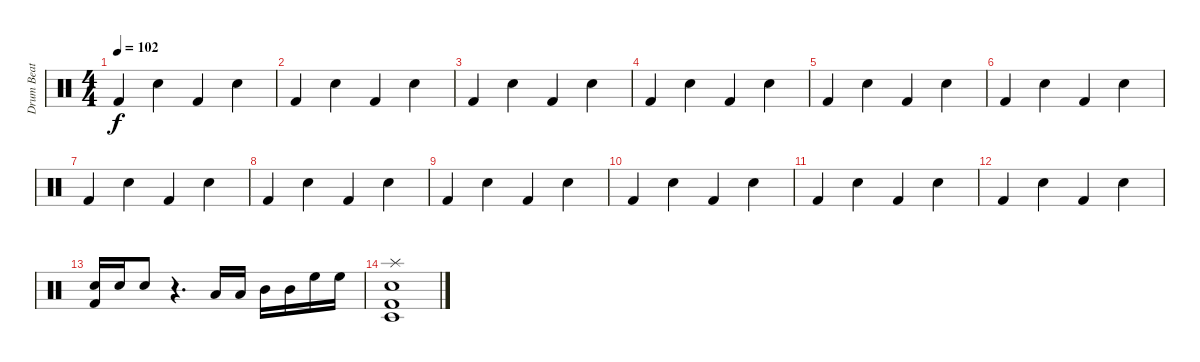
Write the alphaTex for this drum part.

\track ("Drum Beat" "Drum Beat") {instrument percussion}
\staff {score}
\articulation defaults
\ts (4 4)
\tempo 102
\clef neutral
\ks c "Kick (hit) 2".4{dy f} "Electric Snare (hit)".4 "Kick (hit) 2".4 "Electric Snare (hit)".4
|
"Kick (hit) 2".4 "Electric Snare (hit)".4 "Kick (hit) 2".4 "Electric Snare (hit)".4 |
"Kick (hit) 2".4 "Electric Snare (hit)".4 "Kick (hit) 2".4 "Electric Snare (hit)".4 |
"Kick (hit) 2".4 "Electric Snare (hit)".4 "Kick (hit) 2".4 "Electric Snare (hit)".4 |
"Kick (hit) 2".4 "Electric Snare (hit)".4 "Kick (hit) 2".4 "Electric Snare (hit)".4 |
"Kick (hit) 2".4 "Electric Snare (hit)".4 "Kick (hit) 2".4 "Electric Snare (hit)".4 |
"Kick (hit) 2".4 "Electric Snare (hit)".4 "Kick (hit) 2".4 "Electric Snare (hit)".4 |
"Kick (hit) 2".4 "Electric Snare (hit)".4 "Kick (hit) 2".4 "Electric Snare (hit)".4 |
"Kick (hit) 2".4 "Electric Snare (hit)".4 "Kick (hit) 2".4 "Electric Snare (hit)".4 |
"Kick (hit) 2".4 "Electric Snare (hit)".4 "Kick (hit) 2".4 "Electric Snare (hit)".4 |
"Kick (hit) 2".4 "Electric Snare (hit)".4 "Kick (hit) 2".4 "Electric Snare (hit)".4 |
"Kick (hit) 2".4 "Electric Snare (hit)".4 "Kick (hit) 2".4 "Electric Snare (hit)".4 |
("Electric Snare (hit)" "Kick (hit) 2").16 "Electric Snare (hit)".16 "Electric Snare (hit)".8 r.4{d} "Low Tom (hit)".16 "Low Tom (hit)".16 "Mid Tom (hit)".16 "Mid Tom (hit)".16 "High Floor Tom (hit)".16 "High Floor Tom (hit)".16 |
("Splash (hit)" "Electric Snare (hit)" "Kick (hit) 2" "Timbale low (hit)").1
